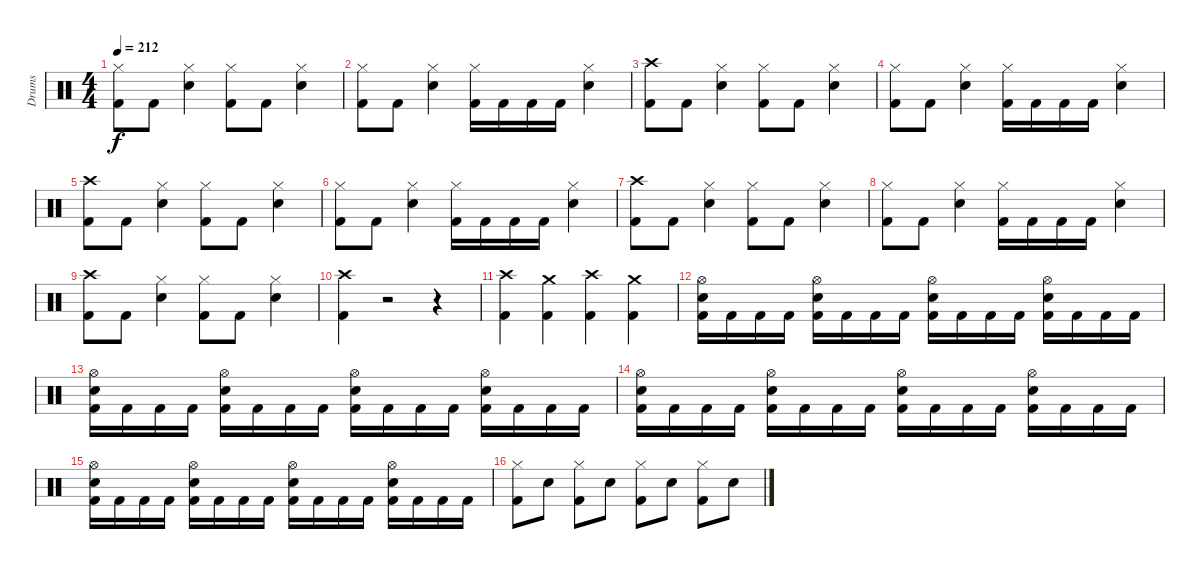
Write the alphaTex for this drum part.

\track ("Drums" "Drums") {instrument percussion}
\staff {score}
\articulation defaults
\ts (4 4)
\tempo 212
\clef neutral
\ks c
("Hi-Hat (closed)" "Kick (hit) 2").8{dy f} "Kick (hit) 2".8 ("Hi-Hat (closed)" "Snare (hit) 2").4 ("Hi-Hat (closed)" "Kick (hit) 2").8 "Kick (hit) 2".8 ("Hi-Hat (closed)" "Snare (hit) 2").4 |
("Hi-Hat (closed)" "Kick (hit) 2").8 "Kick (hit) 2".8 ("Hi-Hat (closed)" "Snare (hit) 2").4 ("Hi-Hat (closed)" "Kick (hit) 2").16 "Kick (hit) 2".16 "Kick (hit) 2".16 "Kick (hit) 2".16 ("Hi-Hat (closed)" "Snare (hit) 2").4 |
("Crash high (hit)" "Kick (hit) 2").8 "Kick (hit) 2".8 ("Hi-Hat (closed)" "Snare (hit) 2").4 ("Hi-Hat (closed)" "Kick (hit) 2").8 "Kick (hit) 2".8 ("Hi-Hat (closed)" "Snare (hit) 2").4 |
("Hi-Hat (closed)" "Kick (hit) 2").8 "Kick (hit) 2".8 ("Hi-Hat (closed)" "Snare (hit) 2").4 ("Hi-Hat (closed)" "Kick (hit) 2").16 "Kick (hit) 2".16 "Kick (hit) 2".16 "Kick (hit) 2".16 ("Hi-Hat (closed)" "Snare (hit) 2").4 |
("Crash high (hit)" "Kick (hit) 2").8 "Kick (hit) 2".8 ("Hi-Hat (closed)" "Snare (hit) 2").4 ("Hi-Hat (closed)" "Kick (hit) 2").8 "Kick (hit) 2".8 ("Hi-Hat (closed)" "Snare (hit) 2").4 |
("Hi-Hat (closed)" "Kick (hit) 2").8 "Kick (hit) 2".8 ("Hi-Hat (closed)" "Snare (hit) 2").4 ("Hi-Hat (closed)" "Kick (hit) 2").16 "Kick (hit) 2".16 "Kick (hit) 2".16 "Kick (hit) 2".16 ("Hi-Hat (closed)" "Snare (hit) 2").4 |
("Crash high (hit)" "Kick (hit) 2").8 "Kick (hit) 2".8 ("Hi-Hat (closed)" "Snare (hit) 2").4 ("Hi-Hat (closed)" "Kick (hit) 2").8 "Kick (hit) 2".8 ("Hi-Hat (closed)" "Snare (hit) 2").4 |
("Hi-Hat (closed)" "Kick (hit) 2").8 "Kick (hit) 2".8 ("Hi-Hat (closed)" "Snare (hit) 2").4 ("Hi-Hat (closed)" "Kick (hit) 2").16 "Kick (hit) 2".16 "Kick (hit) 2".16 "Kick (hit) 2".16 ("Hi-Hat (closed)" "Snare (hit) 2").4 |
("Crash high (hit)" "Kick (hit) 2").8 "Kick (hit) 2".8 ("Hi-Hat (closed)" "Snare (hit) 2").4 ("Hi-Hat (closed)" "Kick (hit) 2").8 "Kick (hit) 2".8 ("Hi-Hat (closed)" "Snare (hit) 2").4 |
("Crash high (hit)" "Kick (hit) 2").4 r.2 r.4 |
("Crash high (hit)" "Kick (hit) 2").4 ("Crash medium (hit)" "Kick (hit) 2").4 ("Crash high (hit)" "Kick (hit) 2").4 ("Crash medium (hit)" "Kick (hit) 2").4 |
("Hi-Hat (open)" "Snare (hit) 2" "Kick (hit) 2").16 "Kick (hit) 2".16 "Kick (hit) 2".16 "Kick (hit) 2".16 ("Hi-Hat (open)" "Snare (hit) 2" "Kick (hit) 2").16 "Kick (hit) 2".16 "Kick (hit) 2".16 "Kick (hit) 2".16 ("Hi-Hat (open)" "Snare (hit) 2" "Kick (hit) 2").16 "Kick (hit) 2".16 "Kick (hit) 2".16 "Kick (hit) 2".16 ("Hi-Hat (open)" "Snare (hit) 2" "Kick (hit) 2").16 "Kick (hit) 2".16 "Kick (hit) 2".16 "Kick (hit) 2".16 |
("Hi-Hat (open)" "Snare (hit) 2" "Kick (hit) 2").16 "Kick (hit) 2".16 "Kick (hit) 2".16 "Kick (hit) 2".16 ("Hi-Hat (open)" "Snare (hit) 2" "Kick (hit) 2").16 "Kick (hit) 2".16 "Kick (hit) 2".16 "Kick (hit) 2".16 ("Hi-Hat (open)" "Snare (hit) 2" "Kick (hit) 2").16 "Kick (hit) 2".16 "Kick (hit) 2".16 "Kick (hit) 2".16 ("Hi-Hat (open)" "Snare (hit) 2" "Kick (hit) 2").16 "Kick (hit) 2".16 "Kick (hit) 2".16 "Kick (hit) 2".16 |
("Hi-Hat (open)" "Snare (hit) 2" "Kick (hit) 2").16 "Kick (hit) 2".16 "Kick (hit) 2".16 "Kick (hit) 2".16 ("Hi-Hat (open)" "Snare (hit) 2" "Kick (hit) 2").16 "Kick (hit) 2".16 "Kick (hit) 2".16 "Kick (hit) 2".16 ("Hi-Hat (open)" "Snare (hit) 2" "Kick (hit) 2").16 "Kick (hit) 2".16 "Kick (hit) 2".16 "Kick (hit) 2".16 ("Hi-Hat (open)" "Snare (hit) 2" "Kick (hit) 2").16 "Kick (hit) 2".16 "Kick (hit) 2".16 "Kick (hit) 2".16 |
("Hi-Hat (open)" "Snare (hit) 2" "Kick (hit) 2").16 "Kick (hit) 2".16 "Kick (hit) 2".16 "Kick (hit) 2".16 ("Hi-Hat (open)" "Snare (hit) 2" "Kick (hit) 2").16 "Kick (hit) 2".16 "Kick (hit) 2".16 "Kick (hit) 2".16 ("Hi-Hat (open)" "Snare (hit) 2" "Kick (hit) 2").16 "Kick (hit) 2".16 "Kick (hit) 2".16 "Kick (hit) 2".16 ("Hi-Hat (open)" "Snare (hit) 2" "Kick (hit) 2").16 "Kick (hit) 2".16 "Kick (hit) 2".16 "Kick (hit) 2".16 |
("Hi-Hat (closed)" "Kick (hit) 2").8 "Snare (hit) 2".8 ("Hi-Hat (closed)" "Kick (hit) 2").8 "Snare (hit) 2".8 ("Hi-Hat (closed)" "Kick (hit) 2").8 "Snare (hit) 2".8 ("Hi-Hat (closed)" "Kick (hit) 2").8 "Snare (hit) 2".8
